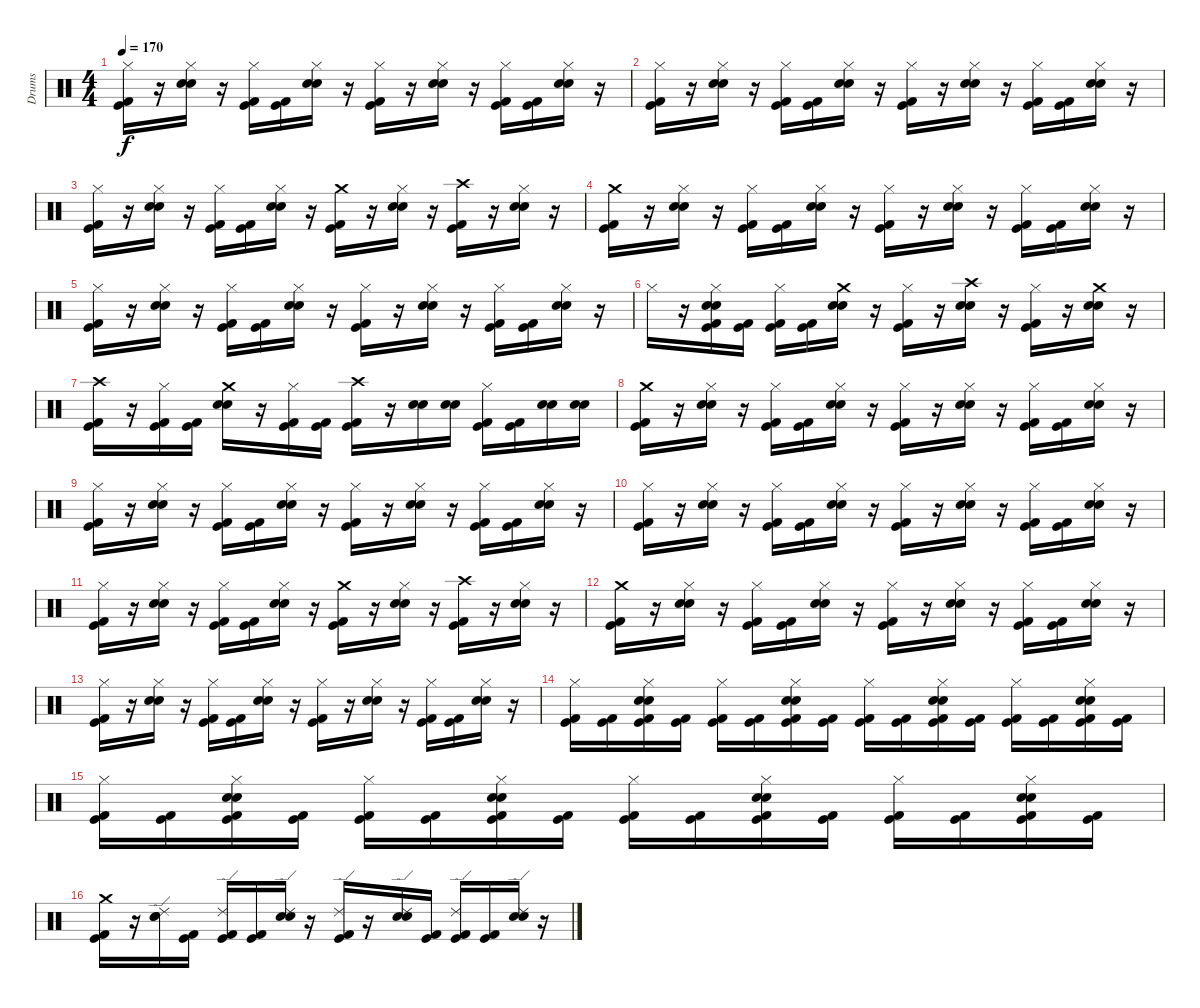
\track ("Drums" "Drums") {instrument percussion}
\staff {score}
\articulation defaults
\ts (4 4)
\tempo 170
\clef neutral
\ks c
("Hi-Hat (closed)" "Kick (hit) 2" "Kick (hit)").16{dy f} r.16 ("Hi-Hat (closed)" "Electric Snare (hit)" "Snare (hit) 2").16 r.16 ("Kick (hit) 2" "Kick (hit)" "Hi-Hat (closed)").16 ("Kick (hit) 2" "Kick (hit)").16 ("Electric Snare (hit)" "Snare (hit) 2" "Hi-Hat (closed)").16 r.16 ("Kick (hit) 2" "Kick (hit)" "Hi-Hat (closed)").16 r.16 ("Electric Snare (hit)" "Snare (hit) 2" "Hi-Hat (closed)").16 r.16 ("Kick (hit) 2" "Kick (hit)" "Hi-Hat (closed)").16 ("Kick (hit) 2" "Kick (hit)").16 ("Electric Snare (hit)" "Snare (hit) 2" "Hi-Hat (closed)").16 r.16 |
("Hi-Hat (closed)" "Kick (hit) 2" "Kick (hit)").16 r.16 ("Hi-Hat (closed)" "Electric Snare (hit)" "Snare (hit) 2").16 r.16 ("Kick (hit) 2" "Kick (hit)" "Hi-Hat (closed)").16 ("Kick (hit) 2" "Kick (hit)").16 ("Electric Snare (hit)" "Snare (hit) 2" "Hi-Hat (closed)").16 r.16 ("Kick (hit) 2" "Kick (hit)" "Hi-Hat (closed)").16 r.16 ("Electric Snare (hit)" "Snare (hit) 2" "Hi-Hat (closed)").16 r.16 ("Kick (hit) 2" "Kick (hit)" "Hi-Hat (closed)").16 ("Kick (hit) 2" "Kick (hit)").16 ("Electric Snare (hit)" "Snare (hit) 2" "Hi-Hat (closed)").16 r.16 |
("Hi-Hat (closed)" "Kick (hit) 2" "Kick (hit)").16 r.16 ("Hi-Hat (closed)" "Electric Snare (hit)" "Snare (hit) 2").16 r.16 ("Kick (hit) 2" "Kick (hit)" "Hi-Hat (closed)").16 ("Kick (hit) 2" "Kick (hit)").16 ("Electric Snare (hit)" "Snare (hit) 2" "Hi-Hat (closed)").16 r.16 ("Crash medium (hit)" "Kick (hit) 2" "Kick (hit)").16 r.16 ("Electric Snare (hit)" "Snare (hit) 2" "Hi-Hat (closed)").16 r.16 ("Crash high (hit)" "Kick (hit) 2" "Kick (hit)").16 r.16 ("Electric Snare (hit)" "Snare (hit) 2" "Hi-Hat (closed)").16 r.16 |
("Crash medium (hit)" "Kick (hit) 2" "Kick (hit)").16 r.16 ("Hi-Hat (closed)" "Electric Snare (hit)" "Snare (hit) 2").16 r.16 ("Kick (hit) 2" "Kick (hit)" "Hi-Hat (closed)").16 ("Kick (hit) 2" "Kick (hit)").16 ("Electric Snare (hit)" "Snare (hit) 2" "Hi-Hat (closed)").16 r.16 ("Kick (hit) 2" "Kick (hit)" "Hi-Hat (closed)").16 r.16 ("Electric Snare (hit)" "Snare (hit) 2" "Hi-Hat (closed)").16 r.16 ("Kick (hit) 2" "Kick (hit)" "Hi-Hat (closed)").16 ("Kick (hit) 2" "Kick (hit)").16 ("Electric Snare (hit)" "Snare (hit) 2" "Hi-Hat (closed)").16 r.16 |
("Hi-Hat (closed)" "Kick (hit) 2" "Kick (hit)").16 r.16 ("Hi-Hat (closed)" "Electric Snare (hit)" "Snare (hit) 2").16 r.16 ("Kick (hit) 2" "Kick (hit)" "Hi-Hat (closed)").16 ("Kick (hit) 2" "Kick (hit)").16 ("Electric Snare (hit)" "Snare (hit) 2" "Hi-Hat (closed)").16 r.16 ("Kick (hit) 2" "Kick (hit)" "Hi-Hat (closed)").16 r.16 ("Electric Snare (hit)" "Snare (hit) 2" "Hi-Hat (closed)").16 r.16 ("Kick (hit) 2" "Kick (hit)" "Hi-Hat (closed)").16 ("Kick (hit) 2" "Kick (hit)").16 ("Electric Snare (hit)" "Snare (hit) 2" "Hi-Hat (closed)").16 r.16 |
"Hi-Hat (closed)".16 r.16 ("Kick (hit) 2" "Kick (hit)" "Hi-Hat (closed)" "Electric Snare (hit)" "Snare (hit) 2").16 ("Kick (hit) 2" "Kick (hit)").16 ("Kick (hit) 2" "Kick (hit)" "Hi-Hat (closed)").16 ("Kick (hit) 2" "Kick (hit)").16 ("Crash medium (hit)" "Electric Snare (hit)" "Snare (hit) 2").16 r.16 ("Kick (hit) 2" "Kick (hit)" "Hi-Hat (closed)").16 r.16 ("Crash high (hit)" "Electric Snare (hit)" "Snare (hit) 2").16 r.16 ("Kick (hit) 2" "Kick (hit)" "Hi-Hat (closed)").16 r.16 ("Crash medium (hit)" "Electric Snare (hit)" "Snare (hit) 2").16 r.16 |
("Crash high (hit)" "Kick (hit) 2" "Kick (hit)").16 r.16 ("Kick (hit) 2" "Kick (hit)" "Hi-Hat (closed)").16 ("Kick (hit) 2" "Kick (hit)").16 ("Crash medium (hit)" "Electric Snare (hit)" "Snare (hit) 2").16 r.16 ("Kick (hit) 2" "Kick (hit)" "Hi-Hat (closed)").16 ("Kick (hit) 2" "Kick (hit)").16 ("Crash high (hit)" "Kick (hit) 2" "Kick (hit)").16 r.16 ("Electric Snare (hit)" "Snare (hit) 2").16 ("Electric Snare (hit)" "Snare (hit) 2").16 ("Hi-Hat (closed)" "Kick (hit) 2" "Kick (hit)").16 ("Kick (hit) 2" "Kick (hit)").16 ("Electric Snare (hit)" "Snare (hit) 2").16 ("Electric Snare (hit)" "Snare (hit) 2").16 |
("Crash medium (hit)" "Kick (hit) 2" "Kick (hit)").16 r.16 ("Hi-Hat (closed)" "Electric Snare (hit)" "Snare (hit) 2").16 r.16 ("Kick (hit) 2" "Kick (hit)" "Hi-Hat (closed)").16 ("Kick (hit) 2" "Kick (hit)").16 ("Electric Snare (hit)" "Snare (hit) 2" "Hi-Hat (closed)").16 r.16 ("Kick (hit) 2" "Kick (hit)" "Hi-Hat (closed)").16 r.16 ("Electric Snare (hit)" "Snare (hit) 2" "Hi-Hat (closed)").16 r.16 ("Kick (hit) 2" "Kick (hit)" "Hi-Hat (closed)").16 ("Kick (hit) 2" "Kick (hit)").16 ("Electric Snare (hit)" "Snare (hit) 2" "Hi-Hat (closed)").16 r.16 |
("Hi-Hat (closed)" "Kick (hit) 2" "Kick (hit)").16 r.16 ("Hi-Hat (closed)" "Electric Snare (hit)" "Snare (hit) 2").16 r.16 ("Kick (hit) 2" "Kick (hit)" "Hi-Hat (closed)").16 ("Kick (hit) 2" "Kick (hit)").16 ("Electric Snare (hit)" "Snare (hit) 2" "Hi-Hat (closed)").16 r.16 ("Kick (hit) 2" "Kick (hit)" "Hi-Hat (closed)").16 r.16 ("Electric Snare (hit)" "Snare (hit) 2" "Hi-Hat (closed)").16 r.16 ("Kick (hit) 2" "Kick (hit)" "Hi-Hat (closed)").16 ("Kick (hit) 2" "Kick (hit)").16 ("Electric Snare (hit)" "Snare (hit) 2" "Hi-Hat (closed)").16 r.16 |
("Hi-Hat (closed)" "Kick (hit) 2" "Kick (hit)").16 r.16 ("Hi-Hat (closed)" "Electric Snare (hit)" "Snare (hit) 2").16 r.16 ("Kick (hit) 2" "Kick (hit)" "Hi-Hat (closed)").16 ("Kick (hit) 2" "Kick (hit)").16 ("Electric Snare (hit)" "Snare (hit) 2" "Hi-Hat (closed)").16 r.16 ("Kick (hit) 2" "Kick (hit)" "Hi-Hat (closed)").16 r.16 ("Electric Snare (hit)" "Snare (hit) 2" "Hi-Hat (closed)").16 r.16 ("Kick (hit) 2" "Kick (hit)" "Hi-Hat (closed)").16 ("Kick (hit) 2" "Kick (hit)").16 ("Electric Snare (hit)" "Snare (hit) 2" "Hi-Hat (closed)").16 r.16 |
("Hi-Hat (closed)" "Kick (hit) 2" "Kick (hit)").16 r.16 ("Hi-Hat (closed)" "Electric Snare (hit)" "Snare (hit) 2").16 r.16 ("Kick (hit) 2" "Kick (hit)" "Hi-Hat (closed)").16 ("Kick (hit) 2" "Kick (hit)").16 ("Electric Snare (hit)" "Snare (hit) 2" "Hi-Hat (closed)").16 r.16 ("Crash medium (hit)" "Kick (hit) 2" "Kick (hit)").16 r.16 ("Electric Snare (hit)" "Snare (hit) 2" "Hi-Hat (closed)").16 r.16 ("Crash high (hit)" "Kick (hit) 2" "Kick (hit)").16 r.16 ("Electric Snare (hit)" "Snare (hit) 2" "Hi-Hat (closed)").16 r.16 |
("Crash medium (hit)" "Kick (hit) 2" "Kick (hit)").16 r.16 ("Hi-Hat (closed)" "Electric Snare (hit)" "Snare (hit) 2").16 r.16 ("Kick (hit) 2" "Kick (hit)" "Hi-Hat (closed)").16 ("Kick (hit) 2" "Kick (hit)").16 ("Electric Snare (hit)" "Snare (hit) 2" "Hi-Hat (closed)").16 r.16 ("Kick (hit) 2" "Kick (hit)" "Hi-Hat (closed)").16 r.16 ("Electric Snare (hit)" "Snare (hit) 2" "Hi-Hat (closed)").16 r.16 ("Kick (hit) 2" "Kick (hit)" "Hi-Hat (closed)").16 ("Kick (hit) 2" "Kick (hit)").16 ("Electric Snare (hit)" "Snare (hit) 2" "Hi-Hat (closed)").16 r.16 |
("Hi-Hat (closed)" "Kick (hit) 2" "Kick (hit)").16 r.16 ("Hi-Hat (closed)" "Electric Snare (hit)" "Snare (hit) 2").16 r.16 ("Kick (hit) 2" "Kick (hit)" "Hi-Hat (closed)").16 ("Kick (hit) 2" "Kick (hit)").16 ("Electric Snare (hit)" "Snare (hit) 2" "Hi-Hat (closed)").16 r.16 ("Kick (hit) 2" "Kick (hit)" "Hi-Hat (closed)").16 r.16 ("Electric Snare (hit)" "Snare (hit) 2" "Hi-Hat (closed)").16 r.16 ("Kick (hit) 2" "Kick (hit)" "Hi-Hat (closed)").16 ("Kick (hit) 2" "Kick (hit)").16 ("Electric Snare (hit)" "Snare (hit) 2" "Hi-Hat (closed)").16 r.16 |
("Kick (hit) 2" "Kick (hit)" "Hi-Hat (closed)").16 ("Kick (hit) 2" "Kick (hit)").16 ("Kick (hit) 2" "Kick (hit)" "Hi-Hat (closed)" "Electric Snare (hit)" "Snare (hit) 2").16 ("Kick (hit) 2" "Kick (hit)").16 ("Kick (hit) 2" "Kick (hit)" "Hi-Hat (closed)").16 ("Kick (hit) 2" "Kick (hit)").16 ("Hi-Hat (closed)" "Kick (hit) 2" "Kick (hit)" "Electric Snare (hit)" "Snare (hit) 2").16 ("Kick (hit) 2" "Kick (hit)").16 ("Kick (hit) 2" "Kick (hit)" "Hi-Hat (closed)").16 ("Kick (hit) 2" "Kick (hit)").16 ("Hi-Hat (closed)" "Kick (hit) 2" "Kick (hit)" "Electric Snare (hit)" "Snare (hit) 2").16 ("Kick (hit) 2" "Kick (hit)").16 ("Kick (hit) 2" "Kick (hit)" "Hi-Hat (closed)").16 ("Kick (hit) 2" "Kick (hit)").16 ("Kick (hit) 2" "Kick (hit)" "Hi-Hat (closed)" "Electric Snare (hit)" "Snare (hit) 2").16 ("Kick (hit) 2" "Kick (hit)").16 |
("Hi-Hat (closed)" "Kick (hit) 2" "Kick (hit)").16 ("Kick (hit) 2" "Kick (hit)").16 ("Electric Snare (hit)" "Snare (hit) 2" "Kick (hit) 2" "Kick (hit)" "Hi-Hat (closed)").16 ("Kick (hit) 2" "Kick (hit)").16 ("Hi-Hat (closed)" "Kick (hit) 2" "Kick (hit)").16 ("Kick (hit) 2" "Kick (hit)").16 ("Electric Snare (hit)" "Snare (hit) 2" "Kick (hit) 2" "Kick (hit)" "Hi-Hat (closed)").16 ("Kick (hit) 2" "Kick (hit)").16 ("Hi-Hat (closed)" "Kick (hit) 2" "Kick (hit)").16 ("Kick (hit) 2" "Kick (hit)").16 ("Kick (hit) 2" "Hi-Hat (closed)" "Kick (hit)" "Electric Snare (hit)" "Snare (hit) 2").16 ("Kick (hit) 2" "Kick (hit)").16 ("Hi-Hat (closed)" "Kick (hit) 2" "Kick (hit)").16 ("Kick (hit) 2" "Kick (hit)").16 ("Electric Snare (hit)" "Snare (hit) 2" "Kick (hit) 2" "Hi-Hat (closed)" "Kick (hit)").16 ("Kick (hit) 2" "Kick (hit)").16 |
("Crash medium (hit)" "Kick (hit) 2" "Kick (hit)").16 r.16 ("Ride (edge) 2" "Electric Snare (hit)" "Snare (hit) 2").16 ("Kick (hit) 2" "Kick (hit)").16 ("Ride (edge) 2" "Kick (hit) 2" "Kick (hit)").16 ("Kick (hit) 2" "Kick (hit)").16 ("Ride (edge) 2" "Electric Snare (hit)" "Snare (hit) 2").16 r.16 ("Ride (edge) 2" "Kick (hit) 2" "Kick (hit)").16 r.16 ("Ride (edge) 2" "Electric Snare (hit)" "Snare (hit) 2").16 ("Kick (hit) 2" "Kick (hit)").16 ("Ride (edge) 2" "Kick (hit) 2" "Kick (hit)").16 ("Kick (hit) 2" "Kick (hit)").16 ("Ride (edge) 2" "Electric Snare (hit)" "Snare (hit) 2").16 r.16
